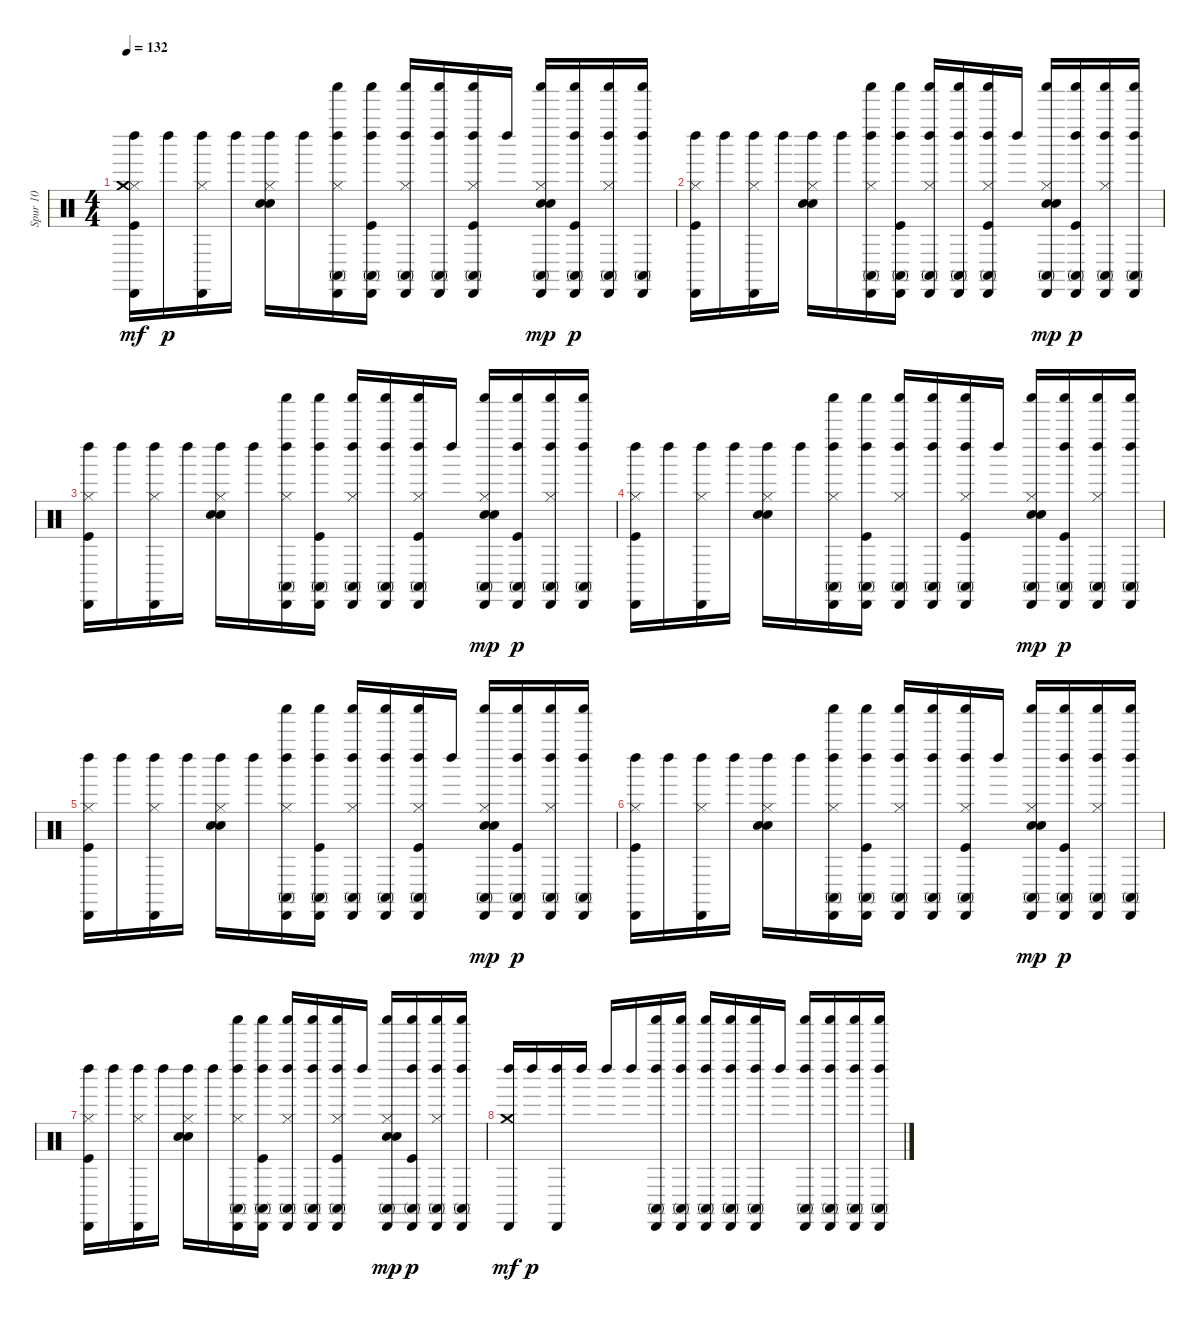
\track ("Spur 10" "Spur 10") {instrument percussion}
\staff {score}
\articulation defaults
\ts (4 4)
\tempo 132
\clef neutral
\ks c
("Kick (hit)" "Hi-Hat (closed)" "Cabasa (hit)" "Left Maraca (hit)" "Crash medium (hit)").16{dy mf} "Left Maraca (hit)".16{dy p} ("Hi-Hat (closed)" "Cabasa (hit)" "Left Maraca (hit)").16 "Left Maraca (hit)".16 ("Hi-Hat (closed)" "Snare (hit) 2" "Hand Clap (hit)" "Left Maraca (hit)").16 "Left Maraca (hit)".16 ("Shaker (hit)" "Hi-Hat (closed)" "Cabasa (hit)" "Conga high (mute)" "Left Maraca (hit)").16 ("Shaker (hit)" "Kick (hit)" "Cabasa (hit)" "Conga high (mute)" "Left Maraca (hit)").16 ("Shaker (hit)" "Hi-Hat (closed)" "Cabasa (hit)" "Conga high (mute)" "Left Maraca (hit)").16 ("Shaker (hit)" "Cabasa (hit)" "Conga high (mute)" "Left Maraca (hit)").16 ("Shaker (hit)" "Kick (hit)" "Hi-Hat (closed)" "Cabasa (hit)" "Conga high (mute)" "Left Maraca (hit)").16 "Left Maraca (hit)".16 ("Shaker (hit)" "Hi-Hat (closed)" "Snare (hit) 2" "Cabasa (hit)" "Conga high (mute)" "Hand Clap (hit)").16{dy mp} ("Shaker (hit)" "Kick (hit)" "Cabasa (hit)" "Conga high (mute)" "Left Maraca (hit)").16{dy p} ("Shaker (hit)" "Hi-Hat (closed)" "Cabasa (hit)" "Conga high (mute)" "Left Maraca (hit)").16 ("Shaker (hit)" "Cabasa (hit)" "Conga high (mute)" "Left Maraca (hit)").16 |
("Kick (hit)" "Hi-Hat (closed)" "Cabasa (hit)" "Left Maraca (hit)").16 "Left Maraca (hit)".16 ("Hi-Hat (closed)" "Cabasa (hit)" "Left Maraca (hit)").16 "Left Maraca (hit)".16 ("Hi-Hat (closed)" "Snare (hit) 2" "Hand Clap (hit)" "Left Maraca (hit)").16 "Left Maraca (hit)".16 ("Shaker (hit)" "Hi-Hat (closed)" "Conga high (mute)" "Cabasa (hit)" "Left Maraca (hit)").16 ("Shaker (hit)" "Kick (hit)" "Conga high (mute)" "Cabasa (hit)" "Left Maraca (hit)").16 ("Shaker (hit)" "Hi-Hat (closed)" "Conga high (mute)" "Cabasa (hit)" "Left Maraca (hit)").16 ("Shaker (hit)" "Conga high (mute)" "Cabasa (hit)" "Left Maraca (hit)").16 ("Shaker (hit)" "Kick (hit)" "Hi-Hat (closed)" "Conga high (mute)" "Cabasa (hit)" "Left Maraca (hit)").16 "Left Maraca (hit)".16 ("Shaker (hit)" "Hi-Hat (closed)" "Snare (hit) 2" "Conga high (mute)" "Cabasa (hit)" "Hand Clap (hit)").16{dy mp} ("Shaker (hit)" "Kick (hit)" "Conga high (mute)" "Cabasa (hit)" "Left Maraca (hit)").16{dy p} ("Shaker (hit)" "Hi-Hat (closed)" "Conga high (mute)" "Cabasa (hit)" "Left Maraca (hit)").16 ("Shaker (hit)" "Conga high (mute)" "Cabasa (hit)" "Left Maraca (hit)").16 |
("Kick (hit)" "Hi-Hat (closed)" "Cabasa (hit)" "Left Maraca (hit)").16 "Left Maraca (hit)".16 ("Hi-Hat (closed)" "Cabasa (hit)" "Left Maraca (hit)").16 "Left Maraca (hit)".16 ("Hi-Hat (closed)" "Snare (hit) 2" "Hand Clap (hit)" "Left Maraca (hit)").16 "Left Maraca (hit)".16 ("Shaker (hit)" "Hi-Hat (closed)" "Conga high (mute)" "Cabasa (hit)" "Left Maraca (hit)").16 ("Shaker (hit)" "Kick (hit)" "Conga high (mute)" "Cabasa (hit)" "Left Maraca (hit)").16 ("Shaker (hit)" "Hi-Hat (closed)" "Conga high (mute)" "Cabasa (hit)" "Left Maraca (hit)").16 ("Shaker (hit)" "Conga high (mute)" "Cabasa (hit)" "Left Maraca (hit)").16 ("Shaker (hit)" "Kick (hit)" "Hi-Hat (closed)" "Conga high (mute)" "Cabasa (hit)" "Left Maraca (hit)").16 "Left Maraca (hit)".16 ("Shaker (hit)" "Hi-Hat (closed)" "Snare (hit) 2" "Conga high (mute)" "Cabasa (hit)" "Hand Clap (hit)").16{dy mp} ("Shaker (hit)" "Kick (hit)" "Conga high (mute)" "Cabasa (hit)" "Left Maraca (hit)").16{dy p} ("Shaker (hit)" "Hi-Hat (closed)" "Conga high (mute)" "Cabasa (hit)" "Left Maraca (hit)").16 ("Shaker (hit)" "Conga high (mute)" "Cabasa (hit)" "Left Maraca (hit)").16 |
("Kick (hit)" "Hi-Hat (closed)" "Cabasa (hit)" "Left Maraca (hit)").16 "Left Maraca (hit)".16 ("Hi-Hat (closed)" "Cabasa (hit)" "Left Maraca (hit)").16 "Left Maraca (hit)".16 ("Hi-Hat (closed)" "Snare (hit) 2" "Hand Clap (hit)" "Left Maraca (hit)").16 "Left Maraca (hit)".16 ("Shaker (hit)" "Hi-Hat (closed)" "Cabasa (hit)" "Conga high (mute)" "Left Maraca (hit)").16 ("Shaker (hit)" "Kick (hit)" "Cabasa (hit)" "Conga high (mute)" "Left Maraca (hit)").16 ("Shaker (hit)" "Hi-Hat (closed)" "Cabasa (hit)" "Conga high (mute)" "Left Maraca (hit)").16 ("Shaker (hit)" "Cabasa (hit)" "Conga high (mute)" "Left Maraca (hit)").16 ("Shaker (hit)" "Kick (hit)" "Hi-Hat (closed)" "Cabasa (hit)" "Conga high (mute)" "Left Maraca (hit)").16 "Left Maraca (hit)".16 ("Shaker (hit)" "Hi-Hat (closed)" "Snare (hit) 2" "Cabasa (hit)" "Conga high (mute)" "Hand Clap (hit)").16{dy mp} ("Shaker (hit)" "Kick (hit)" "Cabasa (hit)" "Conga high (mute)" "Left Maraca (hit)").16{dy p} ("Shaker (hit)" "Hi-Hat (closed)" "Cabasa (hit)" "Conga high (mute)" "Left Maraca (hit)").16 ("Shaker (hit)" "Cabasa (hit)" "Conga high (mute)" "Left Maraca (hit)").16 |
("Kick (hit)" "Hi-Hat (closed)" "Left Maraca (hit)" "Cabasa (hit)").16 "Left Maraca (hit)".16 ("Hi-Hat (closed)" "Left Maraca (hit)" "Cabasa (hit)").16 "Left Maraca (hit)".16 ("Hi-Hat (closed)" "Snare (hit) 2" "Hand Clap (hit)" "Left Maraca (hit)").16 "Left Maraca (hit)".16 ("Shaker (hit)" "Hi-Hat (closed)" "Conga high (mute)" "Cabasa (hit)" "Left Maraca (hit)").16 ("Shaker (hit)" "Kick (hit)" "Conga high (mute)" "Cabasa (hit)" "Left Maraca (hit)").16 ("Shaker (hit)" "Hi-Hat (closed)" "Conga high (mute)" "Cabasa (hit)" "Left Maraca (hit)").16 ("Shaker (hit)" "Conga high (mute)" "Cabasa (hit)" "Left Maraca (hit)").16 ("Shaker (hit)" "Kick (hit)" "Hi-Hat (closed)" "Conga high (mute)" "Cabasa (hit)" "Left Maraca (hit)").16 "Left Maraca (hit)".16 ("Shaker (hit)" "Hi-Hat (closed)" "Snare (hit) 2" "Conga high (mute)" "Cabasa (hit)" "Hand Clap (hit)").16{dy mp} ("Shaker (hit)" "Kick (hit)" "Conga high (mute)" "Cabasa (hit)" "Left Maraca (hit)").16{dy p} ("Shaker (hit)" "Hi-Hat (closed)" "Conga high (mute)" "Cabasa (hit)" "Left Maraca (hit)").16 ("Shaker (hit)" "Conga high (mute)" "Cabasa (hit)" "Left Maraca (hit)").16 |
("Kick (hit)" "Hi-Hat (closed)" "Cabasa (hit)" "Left Maraca (hit)").16 "Left Maraca (hit)".16 ("Hi-Hat (closed)" "Cabasa (hit)" "Left Maraca (hit)").16 "Left Maraca (hit)".16 ("Hi-Hat (closed)" "Snare (hit) 2" "Hand Clap (hit)" "Left Maraca (hit)").16 "Left Maraca (hit)".16 ("Shaker (hit)" "Hi-Hat (closed)" "Cabasa (hit)" "Conga high (mute)" "Left Maraca (hit)").16 ("Shaker (hit)" "Kick (hit)" "Cabasa (hit)" "Conga high (mute)" "Left Maraca (hit)").16 ("Shaker (hit)" "Hi-Hat (closed)" "Cabasa (hit)" "Conga high (mute)" "Left Maraca (hit)").16 ("Shaker (hit)" "Cabasa (hit)" "Conga high (mute)" "Left Maraca (hit)").16 ("Shaker (hit)" "Kick (hit)" "Hi-Hat (closed)" "Cabasa (hit)" "Conga high (mute)" "Left Maraca (hit)").16 "Left Maraca (hit)".16 ("Shaker (hit)" "Hi-Hat (closed)" "Snare (hit) 2" "Cabasa (hit)" "Conga high (mute)" "Hand Clap (hit)").16{dy mp} ("Shaker (hit)" "Kick (hit)" "Cabasa (hit)" "Conga high (mute)" "Left Maraca (hit)").16{dy p} ("Shaker (hit)" "Hi-Hat (closed)" "Cabasa (hit)" "Conga high (mute)" "Left Maraca (hit)").16 ("Shaker (hit)" "Cabasa (hit)" "Conga high (mute)" "Left Maraca (hit)").16 |
("Kick (hit)" "Hi-Hat (closed)" "Cabasa (hit)" "Left Maraca (hit)").16 "Left Maraca (hit)".16 ("Hi-Hat (closed)" "Cabasa (hit)" "Left Maraca (hit)").16 "Left Maraca (hit)".16 ("Hi-Hat (closed)" "Snare (hit) 2" "Hand Clap (hit)" "Left Maraca (hit)").16 "Left Maraca (hit)".16 ("Shaker (hit)" "Hi-Hat (closed)" "Conga high (mute)" "Cabasa (hit)" "Left Maraca (hit)").16 ("Shaker (hit)" "Kick (hit)" "Conga high (mute)" "Cabasa (hit)" "Left Maraca (hit)").16 ("Shaker (hit)" "Hi-Hat (closed)" "Conga high (mute)" "Cabasa (hit)" "Left Maraca (hit)").16 ("Shaker (hit)" "Conga high (mute)" "Cabasa (hit)" "Left Maraca (hit)").16 ("Shaker (hit)" "Kick (hit)" "Hi-Hat (closed)" "Conga high (mute)" "Cabasa (hit)" "Left Maraca (hit)").16 "Left Maraca (hit)".16 ("Shaker (hit)" "Hi-Hat (closed)" "Snare (hit) 2" "Conga high (mute)" "Cabasa (hit)" "Hand Clap (hit)").16{dy mp} ("Shaker (hit)" "Kick (hit)" "Conga high (mute)" "Cabasa (hit)" "Left Maraca (hit)").16{dy p} ("Shaker (hit)" "Hi-Hat (closed)" "Conga high (mute)" "Cabasa (hit)" "Left Maraca (hit)").16 ("Shaker (hit)" "Conga high (mute)" "Cabasa (hit)" "Left Maraca (hit)").16 |
("Cabasa (hit)" "Left Maraca (hit)" "Crash medium (hit)").16{dy mf} "Left Maraca (hit)".16{dy p} ("Cabasa (hit)" "Left Maraca (hit)").16 "Left Maraca (hit)".16 "Left Maraca (hit)".16 "Left Maraca (hit)".16 ("Shaker (hit)" "Conga high (mute)" "Cabasa (hit)" "Left Maraca (hit)").16 ("Shaker (hit)" "Conga high (mute)" "Cabasa (hit)" "Left Maraca (hit)").16 ("Shaker (hit)" "Conga high (mute)" "Cabasa (hit)" "Left Maraca (hit)").16 ("Shaker (hit)" "Conga high (mute)" "Cabasa (hit)" "Left Maraca (hit)").16 ("Shaker (hit)" "Conga high (mute)" "Cabasa (hit)" "Left Maraca (hit)").16 "Left Maraca (hit)".16 ("Shaker (hit)" "Conga high (mute)" "Cabasa (hit)" "Left Maraca (hit)").16 ("Shaker (hit)" "Conga high (mute)" "Cabasa (hit)" "Left Maraca (hit)").16 ("Shaker (hit)" "Conga high (mute)" "Cabasa (hit)" "Left Maraca (hit)").16 ("Shaker (hit)" "Conga high (mute)" "Cabasa (hit)" "Left Maraca (hit)").16
